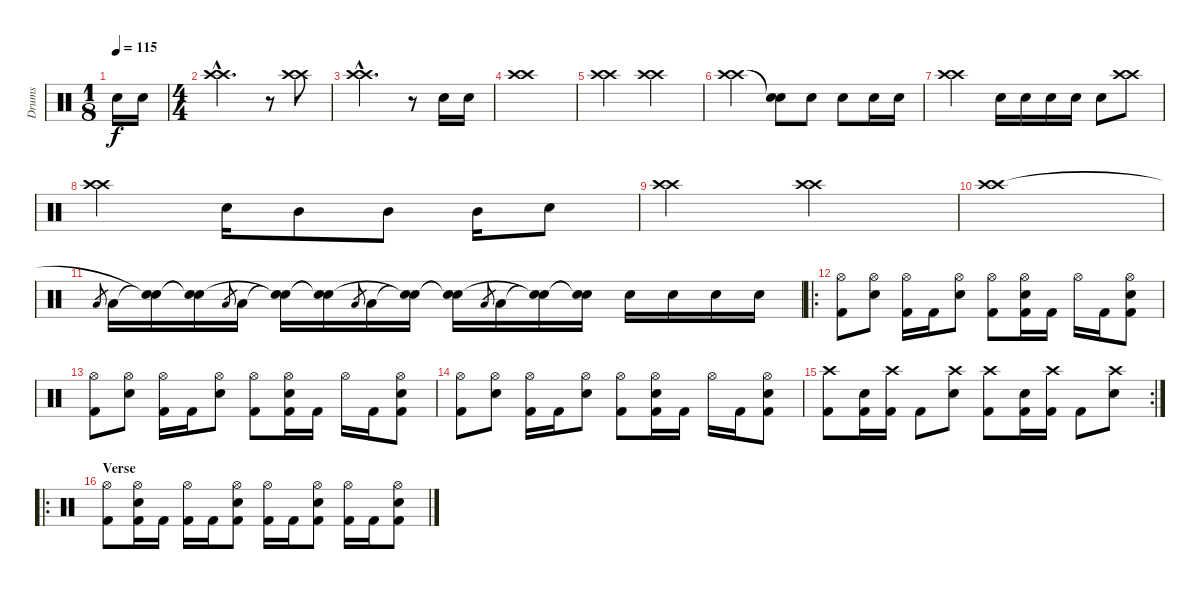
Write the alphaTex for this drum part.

\track ("Drums" "Drums") {instrument percussion}
\staff {score}
\articulation defaults
\ts (1 8)
\tempo 115
\clef neutral
\ks c "Snare (hit) 2".16{dy f} "Snare (hit) 2".16
|
\ts (4 4)
("Crash high (hit)"{hac} "Crash high (hit)"{hac}).2{d} r.8 ("Crash high (hit)" "Crash high (hit)").8 |
("Crash high (hit)"{hac} "Crash high (hit)"{hac}).2{d} r.8 "Snare (hit) 2".16 "Snare (hit) 2".16 |
("Crash high (hit)" "Crash high (hit)").1 |
("Crash high (hit)" "Crash high (hit)").2 ("Crash high (hit)" "Crash high (hit)").2 |
\section ("" "")
("Crash high (hit)" "Crash high (hit)").2 ("Snare (hit)"{t} "Snare (hit)"{t}).8 "Snare (hit) 2".8 "Snare (hit) 2".8 "Snare (hit) 2".16 "Snare (hit) 2".16 |
("Crash high (hit)" "Crash high (hit)").2 "Snare (hit) 2".16 "Snare (hit) 2".16 "Snare (hit) 2".16 "Snare (hit) 2".16 "Snare (hit) 2".8 ("Crash high (hit)" "Crash high (hit)").8 |
("Crash high (hit)" "Crash high (hit)").2 "Snare (hit) 2".16 "Mid Tom (hit)".8 "Mid Tom (hit)".8 "Mid Tom (hit)".16 "Snare (hit) 2".8 |
("Crash high (hit)" "Crash high (hit)").2 ("Crash high (hit)" "Crash high (hit)").2 |
("Crash high (hit)" "Crash high (hit)").1 |
"Low Tom (hit)".8{gr} "Low Tom (hit)".16{volume 16} ("Snare (hit)"{t} "Snare (hit)"{t}).16 ("Snare (hit)"{t} "Snare (hit)"{t}).16 "Low Tom (hit)".8{gr} "Low Tom (hit)".16 ("Snare (hit)"{t} "Snare (hit)"{t}).16 ("Snare (hit)"{t} "Snare (hit)"{t}).16 "Low Tom (hit)".8{gr} "Low Tom (hit)".16 ("Snare (hit)"{t} "Snare (hit)"{t}).16 ("Snare (hit)"{t} "Snare (hit)"{t}).16 "Low Tom (hit)".8{gr} "Low Tom (hit)".16 ("Snare (hit)"{t} "Snare (hit)"{t}).16 ("Snare (hit)"{t} "Snare (hit)"{t}).16 "Snare (hit) 2".16{volume 13} "Snare (hit) 2".16 "Snare (hit) 2".16 "Snare (hit) 2".16 |
\ro
\section ("" "")
("Hi-Hat (open)" "Kick (hit) 2").8 ("Hi-Hat (open)" "Snare (hit) 2").8 ("Hi-Hat (open)" "Kick (hit) 2").16 "Kick (hit) 2".16 ("Hi-Hat (open)" "Snare (hit) 2").8 ("Hi-Hat (open)" "Kick (hit) 2").8 ("Hi-Hat (open)" "Snare (hit) 2" "Kick (hit) 2").16 "Kick (hit) 2".16 "Hi-Hat (open)".16 "Kick (hit) 2".16 ("Hi-Hat (open)" "Snare (hit) 2" "Kick (hit) 2").8 |
("Hi-Hat (open)" "Kick (hit) 2").8 ("Hi-Hat (open)" "Snare (hit) 2").8 ("Hi-Hat (open)" "Kick (hit) 2").16 "Kick (hit) 2".16 ("Hi-Hat (open)" "Snare (hit) 2").8 ("Hi-Hat (open)" "Kick (hit) 2").8 ("Hi-Hat (open)" "Snare (hit) 2" "Kick (hit) 2").16 "Kick (hit) 2".16 "Hi-Hat (open)".16 "Kick (hit) 2".16 ("Hi-Hat (open)" "Snare (hit) 2" "Kick (hit) 2").8 |
("Hi-Hat (open)" "Kick (hit) 2").8 ("Hi-Hat (open)" "Snare (hit) 2").8 ("Hi-Hat (open)" "Kick (hit) 2").16 "Kick (hit) 2".16 ("Hi-Hat (open)" "Snare (hit) 2").8 ("Hi-Hat (open)" "Kick (hit) 2").8 ("Hi-Hat (open)" "Snare (hit) 2" "Kick (hit) 2").16 "Kick (hit) 2".16 "Hi-Hat (open)".16 "Kick (hit) 2".16 ("Hi-Hat (open)" "Snare (hit) 2" "Kick (hit) 2").8 |
\rc 2
("Crash high (hit)" "Kick (hit) 2").8 ("Snare (hit) 2" "Kick (hit) 2").16 ("Crash high (hit)" "Kick (hit) 2").16 "Kick (hit) 2".8 ("Crash high (hit)" "Snare (hit) 2").8 ("Crash high (hit)" "Kick (hit) 2").8 ("Snare (hit) 2" "Kick (hit) 2").16 ("Crash high (hit)" "Kick (hit) 2").16 "Kick (hit) 2".8 ("Crash high (hit)" "Snare (hit) 2").8 |
\ro
\section ("" "Verse")
("Hi-Hat (open)" "Kick (hit) 2").8 ("Hi-Hat (open)" "Snare (hit) 2" "Kick (hit) 2").16 "Kick (hit) 2".16 ("Hi-Hat (open)" "Kick (hit) 2").16 "Kick (hit) 2".16 ("Hi-Hat (open)" "Snare (hit) 2" "Kick (hit) 2").8 ("Hi-Hat (open)" "Kick (hit) 2").16 "Kick (hit) 2".16 ("Hi-Hat (open)" "Snare (hit) 2" "Kick (hit) 2").8 ("Hi-Hat (open)" "Kick (hit) 2").16 "Kick (hit) 2".16 ("Hi-Hat (open)" "Snare (hit) 2" "Kick (hit) 2").8
